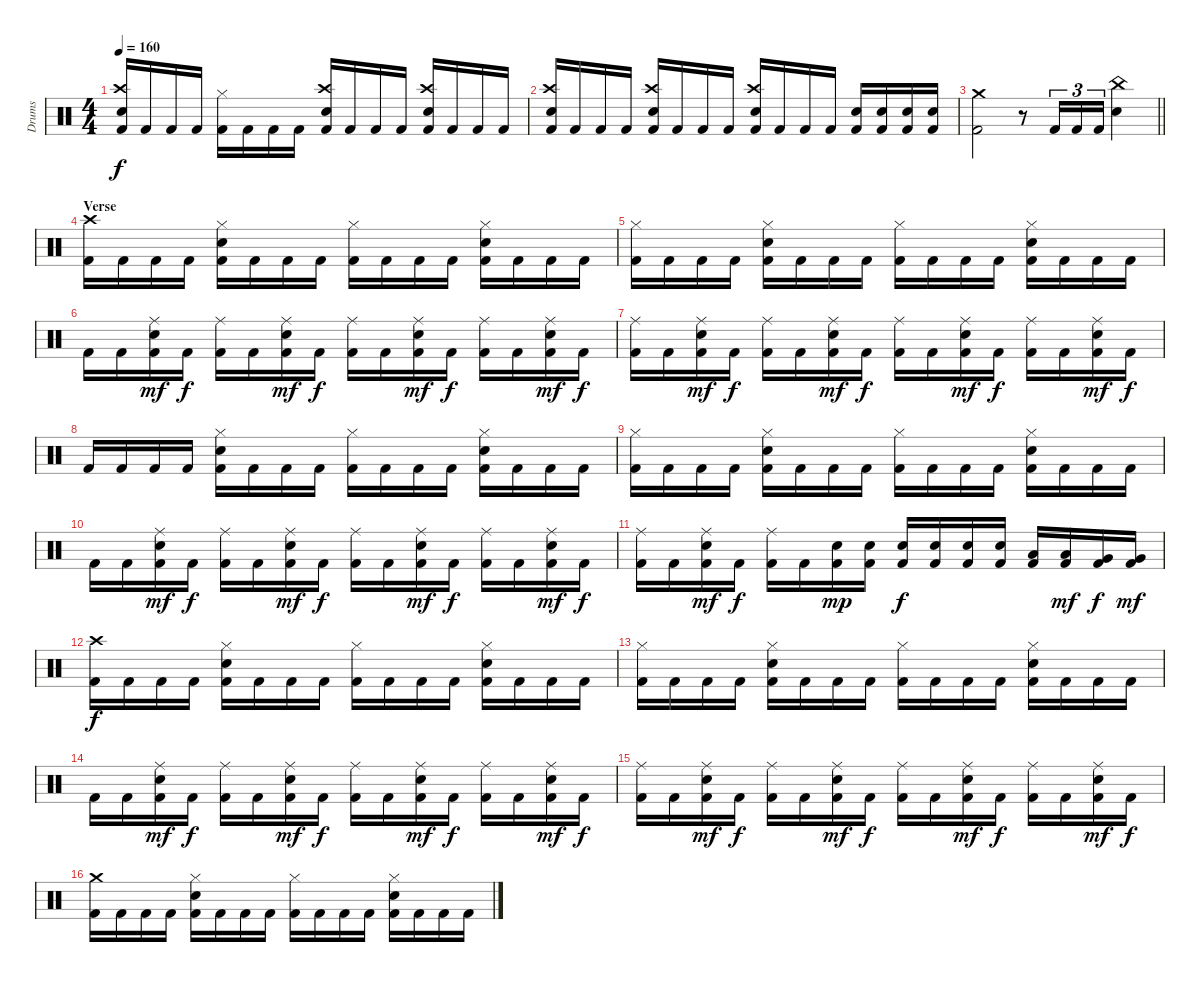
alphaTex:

\track ("Drums" "Drums") {instrument percussion}
\staff {score}
\articulation defaults
\ts (4 4)
\tempo 160
\clef neutral
\ks c
("Kick (hit) 2" "Crash high (hit)" "Electric Snare (hit)").16{dy f} "Kick (hit) 2".16 "Kick (hit) 2".16 "Kick (hit) 2".16 ("Kick (hit) 2" "Hi-Hat (closed)").16 "Kick (hit) 2".16 "Kick (hit) 2".16 "Kick (hit) 2".16 ("Kick (hit) 2" "Crash high (hit)" "Electric Snare (hit)").16 "Kick (hit) 2".16 "Kick (hit) 2".16 "Kick (hit) 2".16 ("Kick (hit) 2" "Crash high (hit)" "Electric Snare (hit)").16 "Kick (hit) 2".16 "Kick (hit) 2".16 "Kick (hit) 2".16 |
("Kick (hit) 2" "Crash high (hit)" "Electric Snare (hit)").16 "Kick (hit) 2".16 "Kick (hit) 2".16 "Kick (hit) 2".16 ("Kick (hit) 2" "Crash high (hit)" "Electric Snare (hit)").16 "Kick (hit) 2".16 "Kick (hit) 2".16 "Kick (hit) 2".16 ("Kick (hit) 2" "Crash high (hit)" "Electric Snare (hit)").16 "Kick (hit) 2".16 "Kick (hit) 2".16 "Kick (hit) 2".16 ("Kick (hit) 2" "Electric Snare (hit)").16 ("Kick (hit) 2" "Electric Snare (hit)").16 ("Kick (hit) 2" "Electric Snare (hit)").16 ("Kick (hit) 2" "Electric Snare (hit)").16 |
\barLineRight lightlight
("Kick (hit) 2" "Crash medium (hit)").2 r.8 "Kick (hit) 2".16{tu (3 2)} "Kick (hit) 2".16{tu (3 2)} "Kick (hit) 2".16{tu (3 2)} ("China (hit)" "Electric Snare (hit)").4 |
\section ("" "Verse")
("Kick (hit) 2" "Crash high (hit)").16 "Kick (hit) 2".16 "Kick (hit) 2".16 "Kick (hit) 2".16 ("Kick (hit) 2" "Hi-Hat (closed)" "Electric Snare (hit)").16 "Kick (hit) 2".16 "Kick (hit) 2".16 "Kick (hit) 2".16 ("Kick (hit) 2" "Hi-Hat (closed)").16 "Kick (hit) 2".16 "Kick (hit) 2".16 "Kick (hit) 2".16 ("Kick (hit) 2" "Hi-Hat (closed)" "Electric Snare (hit)").16 "Kick (hit) 2".16 "Kick (hit) 2".16 "Kick (hit) 2".16 |
("Kick (hit) 2" "Hi-Hat (closed)").16 "Kick (hit) 2".16 "Kick (hit) 2".16 "Kick (hit) 2".16 ("Kick (hit) 2" "Hi-Hat (closed)" "Electric Snare (hit)").16 "Kick (hit) 2".16 "Kick (hit) 2".16 "Kick (hit) 2".16 ("Kick (hit) 2" "Hi-Hat (closed)").16 "Kick (hit) 2".16 "Kick (hit) 2".16 "Kick (hit) 2".16 ("Kick (hit) 2" "Hi-Hat (closed)" "Electric Snare (hit)").16 "Kick (hit) 2".16 "Kick (hit) 2".16 "Kick (hit) 2".16 |
"Kick (hit) 2".16 "Kick (hit) 2".16 ("Kick (hit) 2" "Ride (middle)" "Electric Snare (hit)").16{dy mf} "Kick (hit) 2".16{dy f} ("Kick (hit) 2" "Ride (middle)").16 "Kick (hit) 2".16 ("Kick (hit) 2" "Ride (middle)" "Electric Snare (hit)").16{dy mf} "Kick (hit) 2".16{dy f} ("Kick (hit) 2" "Ride (middle)").16 "Kick (hit) 2".16 ("Kick (hit) 2" "Ride (middle)" "Electric Snare (hit)").16{dy mf} "Kick (hit) 2".16{dy f} ("Kick (hit) 2" "Ride (middle)").16 "Kick (hit) 2".16 ("Kick (hit) 2" "Ride (middle)" "Electric Snare (hit)").16{dy mf} "Kick (hit) 2".16{dy f} |
("Kick (hit) 2" "Ride (middle)").16 "Kick (hit) 2".16 ("Kick (hit) 2" "Ride (middle)" "Electric Snare (hit)").16{dy mf} "Kick (hit) 2".16{dy f} ("Kick (hit) 2" "Ride (middle)").16 "Kick (hit) 2".16 ("Kick (hit) 2" "Ride (middle)" "Electric Snare (hit)").16{dy mf} "Kick (hit) 2".16{dy f} ("Kick (hit) 2" "Ride (middle)").16 "Kick (hit) 2".16 ("Kick (hit) 2" "Ride (middle)" "Electric Snare (hit)").16{dy mf} "Kick (hit) 2".16{dy f} ("Kick (hit) 2" "Ride (middle)").16 "Kick (hit) 2".16 ("Kick (hit) 2" "Ride (middle)" "Electric Snare (hit)").16{dy mf} "Kick (hit) 2".16{dy f} |
"Kick (hit) 2".16 "Kick (hit) 2".16 "Kick (hit) 2".16 "Kick (hit) 2".16 ("Kick (hit) 2" "Hi-Hat (closed)" "Electric Snare (hit)").16 "Kick (hit) 2".16 "Kick (hit) 2".16 "Kick (hit) 2".16 ("Kick (hit) 2" "Hi-Hat (closed)").16 "Kick (hit) 2".16 "Kick (hit) 2".16 "Kick (hit) 2".16 ("Kick (hit) 2" "Hi-Hat (closed)" "Electric Snare (hit)").16 "Kick (hit) 2".16 "Kick (hit) 2".16 "Kick (hit) 2".16 |
("Kick (hit) 2" "Hi-Hat (closed)").16 "Kick (hit) 2".16 "Kick (hit) 2".16 "Kick (hit) 2".16 ("Kick (hit) 2" "Hi-Hat (closed)" "Electric Snare (hit)").16 "Kick (hit) 2".16 "Kick (hit) 2".16 "Kick (hit) 2".16 ("Kick (hit) 2" "Hi-Hat (closed)").16 "Kick (hit) 2".16 "Kick (hit) 2".16 "Kick (hit) 2".16 ("Kick (hit) 2" "Hi-Hat (closed)" "Electric Snare (hit)").16 "Kick (hit) 2".16 "Kick (hit) 2".16 "Kick (hit) 2".16 |
"Kick (hit) 2".16 "Kick (hit) 2".16 ("Kick (hit) 2" "Ride (middle)" "Electric Snare (hit)").16{dy mf} "Kick (hit) 2".16{dy f} ("Kick (hit) 2" "Ride (middle)").16 "Kick (hit) 2".16 ("Kick (hit) 2" "Ride (middle)" "Electric Snare (hit)").16{dy mf} "Kick (hit) 2".16{dy f} ("Kick (hit) 2" "Ride (middle)").16 "Kick (hit) 2".16 ("Kick (hit) 2" "Ride (middle)" "Electric Snare (hit)").16{dy mf} "Kick (hit) 2".16{dy f} ("Kick (hit) 2" "Ride (middle)").16 "Kick (hit) 2".16 ("Kick (hit) 2" "Ride (middle)" "Electric Snare (hit)").16{dy mf} "Kick (hit) 2".16{dy f} |
("Kick (hit) 2" "Ride (middle)").16 "Kick (hit) 2".16 ("Kick (hit) 2" "Ride (middle)" "Electric Snare (hit)").16{dy mf} "Kick (hit) 2".16{dy f} ("Kick (hit) 2" "Ride (middle)").16 "Kick (hit) 2".16 ("Kick (hit) 2" "Electric Snare (hit)").16{dy mp} ("Kick (hit) 2" "Electric Snare (hit)").16 ("Kick (hit) 2" "Electric Snare (hit)").16{dy f} ("Kick (hit) 2" "Electric Snare (hit)").16 ("Kick (hit) 2" "Electric Snare (hit)").16 ("Kick (hit) 2" "Electric Snare (hit)").16 ("Kick (hit) 2" "Low Tom (hit)").16 ("Kick (hit) 2" "Low Tom (hit)").16{dy mf} ("Kick (hit) 2" "Very Low Tom (hit)").16{dy f} ("Kick (hit) 2" "Very Low Tom (hit)").16{dy mf} |
("Kick (hit) 2" "Crash high (hit)").16{dy f} "Kick (hit) 2".16 "Kick (hit) 2".16 "Kick (hit) 2".16 ("Kick (hit) 2" "Hi-Hat (closed)" "Electric Snare (hit)").16 "Kick (hit) 2".16 "Kick (hit) 2".16 "Kick (hit) 2".16 ("Kick (hit) 2" "Hi-Hat (closed)").16 "Kick (hit) 2".16 "Kick (hit) 2".16 "Kick (hit) 2".16 ("Kick (hit) 2" "Hi-Hat (closed)" "Electric Snare (hit)").16 "Kick (hit) 2".16 "Kick (hit) 2".16 "Kick (hit) 2".16 |
("Kick (hit) 2" "Hi-Hat (closed)").16 "Kick (hit) 2".16 "Kick (hit) 2".16 "Kick (hit) 2".16 ("Kick (hit) 2" "Hi-Hat (closed)" "Electric Snare (hit)").16 "Kick (hit) 2".16 "Kick (hit) 2".16 "Kick (hit) 2".16 ("Kick (hit) 2" "Hi-Hat (closed)").16 "Kick (hit) 2".16 "Kick (hit) 2".16 "Kick (hit) 2".16 ("Kick (hit) 2" "Hi-Hat (closed)" "Electric Snare (hit)").16 "Kick (hit) 2".16 "Kick (hit) 2".16 "Kick (hit) 2".16 |
"Kick (hit) 2".16 "Kick (hit) 2".16 ("Kick (hit) 2" "Ride (middle)" "Electric Snare (hit)").16{dy mf} "Kick (hit) 2".16{dy f} ("Kick (hit) 2" "Ride (middle)").16 "Kick (hit) 2".16 ("Kick (hit) 2" "Ride (middle)" "Electric Snare (hit)").16{dy mf} "Kick (hit) 2".16{dy f} ("Kick (hit) 2" "Ride (middle)").16 "Kick (hit) 2".16 ("Kick (hit) 2" "Ride (middle)" "Electric Snare (hit)").16{dy mf} "Kick (hit) 2".16{dy f} ("Kick (hit) 2" "Ride (middle)").16 "Kick (hit) 2".16 ("Kick (hit) 2" "Ride (middle)" "Electric Snare (hit)").16{dy mf} "Kick (hit) 2".16{dy f} |
("Kick (hit) 2" "Ride (middle)").16 "Kick (hit) 2".16 ("Kick (hit) 2" "Ride (middle)" "Electric Snare (hit)").16{dy mf} "Kick (hit) 2".16{dy f} ("Kick (hit) 2" "Ride (middle)").16 "Kick (hit) 2".16 ("Kick (hit) 2" "Ride (middle)" "Electric Snare (hit)").16{dy mf} "Kick (hit) 2".16{dy f} ("Kick (hit) 2" "Ride (middle)").16 "Kick (hit) 2".16 ("Kick (hit) 2" "Ride (middle)" "Electric Snare (hit)").16{dy mf} "Kick (hit) 2".16{dy f} ("Kick (hit) 2" "Ride (middle)").16 "Kick (hit) 2".16 ("Kick (hit) 2" "Ride (middle)" "Electric Snare (hit)").16{dy mf} "Kick (hit) 2".16{dy f} |
("Kick (hit) 2" "Crash medium (hit)").16 "Kick (hit) 2".16 "Kick (hit) 2".16 "Kick (hit) 2".16 ("Kick (hit) 2" "Hi-Hat (closed)" "Electric Snare (hit)").16 "Kick (hit) 2".16 "Kick (hit) 2".16 "Kick (hit) 2".16 ("Kick (hit) 2" "Hi-Hat (closed)").16 "Kick (hit) 2".16 "Kick (hit) 2".16 "Kick (hit) 2".16 ("Kick (hit) 2" "Hi-Hat (closed)" "Electric Snare (hit)").16 "Kick (hit) 2".16 "Kick (hit) 2".16 "Kick (hit) 2".16
